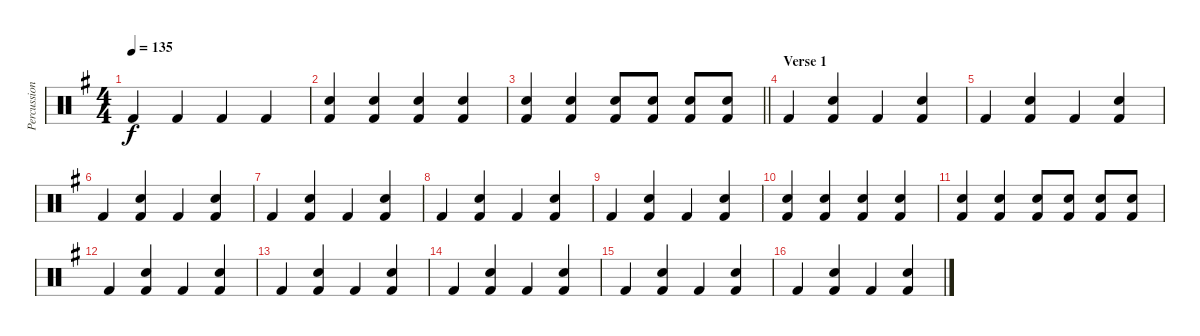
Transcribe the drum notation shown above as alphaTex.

\track ("Percussion" "Percussion") {instrument percussion}
\staff {score}
\articulation defaults
\ts (4 4)
\tempo 135
\clef neutral
\ks g "Kick (hit) 2".4{dy f} "Kick (hit) 2".4 "Kick (hit) 2".4 "Kick (hit) 2".4
|
("Snare (hit) 2" "Kick (hit) 2").4 ("Snare (hit) 2" "Kick (hit) 2").4 ("Snare (hit) 2" "Kick (hit) 2").4 ("Snare (hit) 2" "Kick (hit) 2").4 |
\barLineRight lightlight
("Snare (hit) 2" "Kick (hit) 2").4 ("Snare (hit) 2" "Kick (hit) 2").4 ("Snare (hit) 2" "Kick (hit) 2").8 ("Snare (hit) 2" "Kick (hit) 2").8 ("Snare (hit) 2" "Kick (hit) 2").8 ("Snare (hit) 2" "Kick (hit) 2").8 |
\section ("" "Verse 1")
"Kick (hit) 2".4 ("Snare (hit) 2" "Kick (hit) 2").4 "Kick (hit) 2".4 ("Snare (hit) 2" "Kick (hit) 2").4 |
"Kick (hit) 2".4 ("Snare (hit) 2" "Kick (hit) 2").4 "Kick (hit) 2".4 ("Snare (hit) 2" "Kick (hit) 2").4 |
"Kick (hit) 2".4 ("Snare (hit) 2" "Kick (hit) 2").4 "Kick (hit) 2".4 ("Snare (hit) 2" "Kick (hit) 2").4 |
"Kick (hit) 2".4 ("Snare (hit) 2" "Kick (hit) 2").4 "Kick (hit) 2".4 ("Snare (hit) 2" "Kick (hit) 2").4 |
"Kick (hit) 2".4 ("Snare (hit) 2" "Kick (hit) 2").4 "Kick (hit) 2".4 ("Snare (hit) 2" "Kick (hit) 2").4 |
"Kick (hit) 2".4 ("Snare (hit) 2" "Kick (hit) 2").4 "Kick (hit) 2".4 ("Snare (hit) 2" "Kick (hit) 2").4 |
("Snare (hit) 2" "Kick (hit) 2").4 ("Snare (hit) 2" "Kick (hit) 2").4 ("Snare (hit) 2" "Kick (hit) 2").4 ("Snare (hit) 2" "Kick (hit) 2").4 |
("Snare (hit) 2" "Kick (hit) 2").4 ("Snare (hit) 2" "Kick (hit) 2").4 ("Snare (hit) 2" "Kick (hit) 2").8 ("Snare (hit) 2" "Kick (hit) 2").8 ("Snare (hit) 2" "Kick (hit) 2").8 ("Snare (hit) 2" "Kick (hit) 2").8 |
"Kick (hit) 2".4 ("Snare (hit) 2" "Kick (hit) 2").4 "Kick (hit) 2".4 ("Snare (hit) 2" "Kick (hit) 2").4 |
"Kick (hit) 2".4 ("Snare (hit) 2" "Kick (hit) 2").4 "Kick (hit) 2".4 ("Snare (hit) 2" "Kick (hit) 2").4 |
"Kick (hit) 2".4 ("Snare (hit) 2" "Kick (hit) 2").4 "Kick (hit) 2".4 ("Snare (hit) 2" "Kick (hit) 2").4 |
"Kick (hit) 2".4 ("Snare (hit) 2" "Kick (hit) 2").4 "Kick (hit) 2".4 ("Snare (hit) 2" "Kick (hit) 2").4 |
"Kick (hit) 2".4 ("Snare (hit) 2" "Kick (hit) 2").4 "Kick (hit) 2".4 ("Snare (hit) 2" "Kick (hit) 2").4
